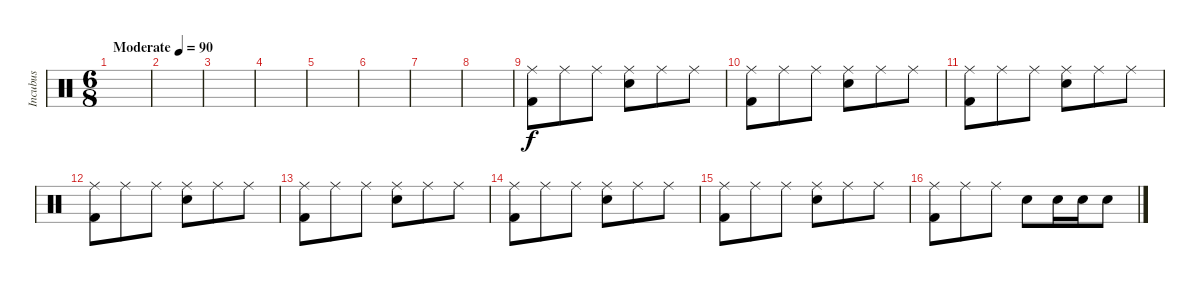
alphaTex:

\track ("Incubus" "Incubus") {instrument percussion}
\staff {score}
\articulation defaults
\ts (6 8)
\tempo (90 "Moderate")
\clef neutral
\ks c
|
|
|
|
|
|
|
|
("Ride (middle)" "Kick (hit) 2").8 "Ride (middle)".8 "Ride (middle)".8 ("Ride (middle)" "Electric Snare (hit)").8 "Ride (middle)".8 "Ride (middle)".8 |
("Ride (middle)" "Kick (hit) 2").8 "Ride (middle)".8 "Ride (middle)".8 ("Ride (middle)" "Electric Snare (hit)").8 "Ride (middle)".8 "Ride (middle)".8 |
("Ride (middle)" "Kick (hit) 2").8 "Ride (middle)".8 "Ride (middle)".8 ("Ride (middle)" "Electric Snare (hit)").8 "Ride (middle)".8 "Ride (middle)".8 |
("Ride (middle)" "Kick (hit) 2").8 "Ride (middle)".8 "Ride (middle)".8 ("Ride (middle)" "Electric Snare (hit)").8 "Ride (middle)".8 "Ride (middle)".8 |
("Ride (middle)" "Kick (hit) 2").8 "Ride (middle)".8 "Ride (middle)".8 ("Ride (middle)" "Electric Snare (hit)").8 "Ride (middle)".8 "Ride (middle)".8 |
("Ride (middle)" "Kick (hit) 2").8 "Ride (middle)".8 "Ride (middle)".8 ("Ride (middle)" "Electric Snare (hit)").8 "Ride (middle)".8 "Ride (middle)".8 |
("Ride (middle)" "Kick (hit) 2").8 "Ride (middle)".8 "Ride (middle)".8 ("Ride (middle)" "Electric Snare (hit)").8 "Ride (middle)".8 "Ride (middle)".8 |
("Ride (middle)" "Kick (hit) 2").8 "Ride (middle)".8 "Ride (middle)".8 "Electric Snare (hit)".8 "Electric Snare (hit)".16 "Electric Snare (hit)".16 "Electric Snare (hit)".8
